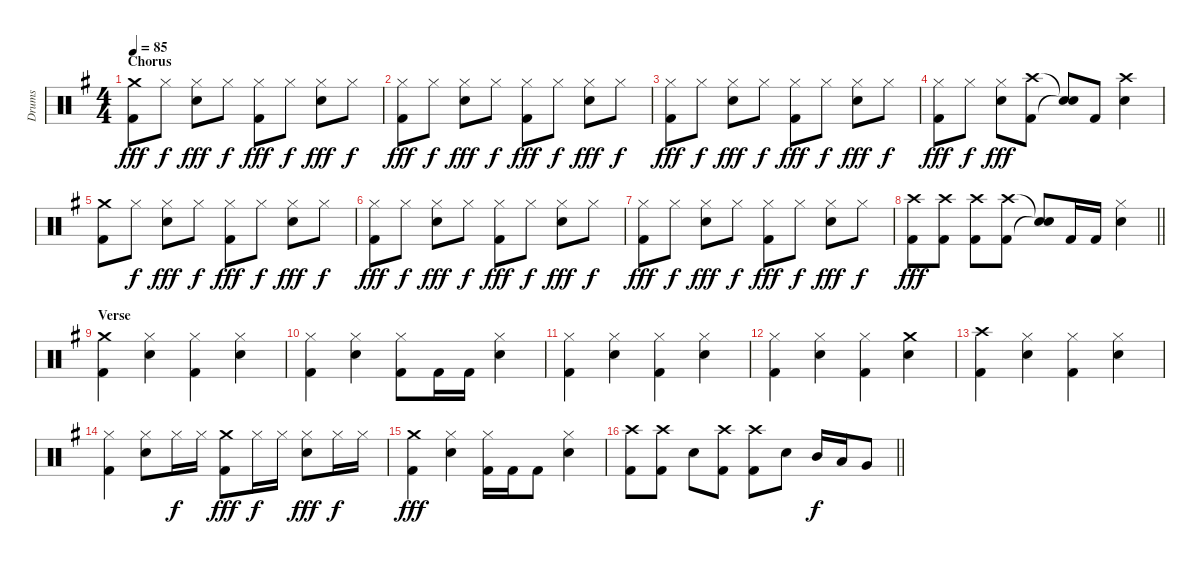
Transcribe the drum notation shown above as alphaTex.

\track ("Drums" "Drums") {instrument percussion}
\staff {score}
\articulation defaults
\ts (4 4)
\section ("" "Chorus")
\tempo 85
\clef neutral
\ks g
("Crash medium (hit)" "Kick (hit) 2").8{dy fff} "Hi-Hat (closed)".8{dy f} ("Hi-Hat (closed)" "Snare (hit) 2").8{dy fff} "Hi-Hat (closed)".8{dy f} ("Hi-Hat (closed)" "Kick (hit) 2").8{dy fff} "Hi-Hat (closed)".8{dy f} ("Hi-Hat (closed)" "Snare (hit) 2").8{dy fff} "Hi-Hat (closed)".8{dy f} |
("Hi-Hat (closed)" "Kick (hit) 2").8{dy fff} "Hi-Hat (closed)".8{dy f} ("Hi-Hat (closed)" "Snare (hit) 2").8{dy fff} "Hi-Hat (closed)".8{dy f} ("Hi-Hat (closed)" "Kick (hit) 2").8{dy fff} "Hi-Hat (closed)".8{dy f} ("Hi-Hat (closed)" "Snare (hit) 2").8{dy fff} "Hi-Hat (closed)".8{dy f} |
("Hi-Hat (closed)" "Kick (hit) 2").8{dy fff} "Hi-Hat (closed)".8{dy f} ("Hi-Hat (closed)" "Snare (hit) 2").8{dy fff} "Hi-Hat (closed)".8{dy f} ("Hi-Hat (closed)" "Kick (hit) 2").8{dy fff} "Hi-Hat (closed)".8{dy f} ("Hi-Hat (closed)" "Snare (hit) 2").8{dy fff} "Hi-Hat (closed)".8{dy f} |
("Hi-Hat (closed)" "Kick (hit) 2").8{dy fff} "Hi-Hat (closed)".8{dy f} ("Hi-Hat (closed)" "Snare (hit) 2").8{dy fff} ("Crash high (hit)" "Kick (hit) 2").8 ("Snare (hit)"{t} "Snare (hit)"{t}).8 "Kick (hit) 2".8 ("Crash high (hit)" "Snare (hit) 2").4 |
("Crash medium (hit)" "Kick (hit) 2").8 "Hi-Hat (closed)".8{dy f} ("Hi-Hat (closed)" "Snare (hit) 2").8{dy fff} "Hi-Hat (closed)".8{dy f} ("Hi-Hat (closed)" "Kick (hit) 2").8{dy fff} "Hi-Hat (closed)".8{dy f} ("Hi-Hat (closed)" "Snare (hit) 2").8{dy fff} "Hi-Hat (closed)".8{dy f} |
("Hi-Hat (closed)" "Kick (hit) 2").8{dy fff} "Hi-Hat (closed)".8{dy f} ("Hi-Hat (closed)" "Snare (hit) 2").8{dy fff} "Hi-Hat (closed)".8{dy f} ("Hi-Hat (closed)" "Kick (hit) 2").8{dy fff} "Hi-Hat (closed)".8{dy f} ("Hi-Hat (closed)" "Snare (hit) 2").8{dy fff} "Hi-Hat (closed)".8{dy f} |
("Hi-Hat (closed)" "Kick (hit) 2").8{dy fff} "Hi-Hat (closed)".8{dy f} ("Hi-Hat (closed)" "Snare (hit) 2").8{dy fff} "Hi-Hat (closed)".8{dy f} ("Hi-Hat (closed)" "Kick (hit) 2").8{dy fff} "Hi-Hat (closed)".8{dy f} ("Hi-Hat (closed)" "Snare (hit) 2").8{dy fff} "Hi-Hat (closed)".8{dy f} |
\barLineRight lightlight
("Crash high (hit)" "Kick (hit) 2").8{dy fff} ("Crash high (hit)" "Kick (hit) 2").8 ("Crash high (hit)" "Kick (hit) 2").8 ("Crash high (hit)" "Kick (hit) 2").8 ("Snare (hit)"{t} "Snare (hit)"{t}).8 "Kick (hit) 2".16 "Kick (hit) 2".16 ("Hi-Hat (closed)" "Snare (hit) 2").4 |
\section ("" "Verse")
("Crash medium (hit)" "Kick (hit) 2").4 ("Hi-Hat (closed)" "Snare (hit) 2").4 ("Hi-Hat (closed)" "Kick (hit) 2").4 ("Hi-Hat (closed)" "Snare (hit) 2").4 |
("Hi-Hat (closed)" "Kick (hit) 2").4 ("Hi-Hat (closed)" "Snare (hit) 2").4 ("Hi-Hat (closed)" "Kick (hit) 2").8 "Kick (hit) 2".16 "Kick (hit) 2".16 ("Hi-Hat (closed)" "Snare (hit) 2").4 |
("Hi-Hat (closed)" "Kick (hit) 2").4 ("Hi-Hat (closed)" "Snare (hit) 2").4 ("Hi-Hat (closed)" "Kick (hit) 2").4 ("Hi-Hat (closed)" "Snare (hit) 2").4 |
("Hi-Hat (closed)" "Kick (hit) 2").4 ("Hi-Hat (closed)" "Snare (hit) 2").4 ("Hi-Hat (closed)" "Kick (hit) 2").4 ("Crash medium (hit)" "Snare (hit) 2").4 |
("Crash high (hit)" "Kick (hit) 2").4 ("Hi-Hat (closed)" "Snare (hit) 2").4 ("Hi-Hat (closed)" "Kick (hit) 2").4 ("Hi-Hat (closed)" "Snare (hit) 2").4 |
("Hi-Hat (closed)" "Kick (hit) 2").4 ("Hi-Hat (closed)" "Snare (hit) 2").8 "Hi-Hat (closed)".16{dy f} "Hi-Hat (closed)".16 ("Crash medium (hit)" "Kick (hit) 2").8{dy fff} "Hi-Hat (closed)".16{dy f} "Hi-Hat (closed)".16 ("Hi-Hat (closed)" "Snare (hit) 2").8{dy fff} "Hi-Hat (closed)".16{dy f} "Hi-Hat (closed)".16 |
("Crash medium (hit)" "Kick (hit) 2").4{dy fff} ("Hi-Hat (closed)" "Snare (hit) 2").4 ("Hi-Hat (closed)" "Kick (hit) 2").16 "Kick (hit) 2".16 "Kick (hit) 2".8 ("Hi-Hat (closed)" "Snare (hit) 2").4 |
\barLineRight lightlight
("Crash high (hit)" "Kick (hit) 2").8 ("Crash high (hit)" "Kick (hit) 2").8 "Snare (hit) 2".8 ("Crash high (hit)" "Kick (hit) 2").8 ("Crash high (hit)" "Kick (hit) 2").8 "Snare (hit) 2".8 "Mid Tom (hit)".16{dy f} "Low Tom (hit)".16 "Very Low Tom (hit)".8
